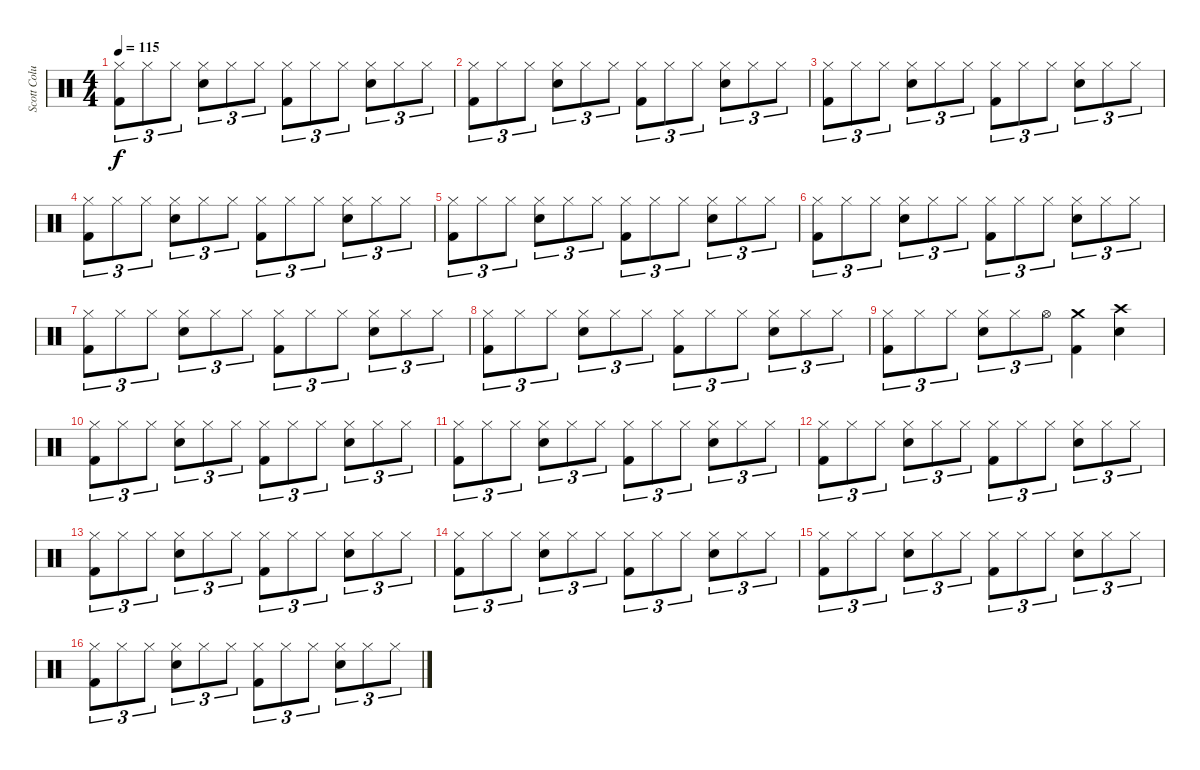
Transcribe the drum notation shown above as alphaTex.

\track ("Scott Columus(Drums)" "Scott Colu") {instrument percussion}
\staff {score}
\articulation defaults
\ts (4 4)
\tempo 115
\clef neutral
\ks c
("Hi-Hat (closed)" "Kick (hit) 2").8{tu (3 2) dy f} "Hi-Hat (closed)".8{tu (3 2)} "Hi-Hat (closed)".8{tu (3 2)} ("Hi-Hat (closed)" "Snare (hit) 2").8{tu (3 2)} "Hi-Hat (closed)".8{tu (3 2)} "Hi-Hat (closed)".8{tu (3 2)} ("Hi-Hat (closed)" "Kick (hit) 2").8{tu (3 2)} "Hi-Hat (closed)".8{tu (3 2)} "Hi-Hat (closed)".8{tu (3 2)} ("Hi-Hat (closed)" "Snare (hit) 2").8{tu (3 2)} "Hi-Hat (closed)".8{tu (3 2)} "Hi-Hat (closed)".8{tu (3 2)} |
("Hi-Hat (closed)" "Kick (hit) 2").8{tu (3 2)} "Hi-Hat (closed)".8{tu (3 2)} "Hi-Hat (closed)".8{tu (3 2)} ("Hi-Hat (closed)" "Snare (hit) 2").8{tu (3 2)} "Hi-Hat (closed)".8{tu (3 2)} "Hi-Hat (closed)".8{tu (3 2)} ("Hi-Hat (closed)" "Kick (hit) 2").8{tu (3 2)} "Hi-Hat (closed)".8{tu (3 2)} "Hi-Hat (closed)".8{tu (3 2)} ("Hi-Hat (closed)" "Snare (hit) 2").8{tu (3 2)} "Hi-Hat (closed)".8{tu (3 2)} "Hi-Hat (closed)".8{tu (3 2)} |
("Hi-Hat (closed)" "Kick (hit) 2").8{tu (3 2)} "Hi-Hat (closed)".8{tu (3 2)} "Hi-Hat (closed)".8{tu (3 2)} ("Hi-Hat (closed)" "Snare (hit) 2").8{tu (3 2)} "Hi-Hat (closed)".8{tu (3 2)} "Hi-Hat (closed)".8{tu (3 2)} ("Hi-Hat (closed)" "Kick (hit) 2").8{tu (3 2)} "Hi-Hat (closed)".8{tu (3 2)} "Hi-Hat (closed)".8{tu (3 2)} ("Hi-Hat (closed)" "Snare (hit) 2").8{tu (3 2)} "Hi-Hat (closed)".8{tu (3 2)} "Hi-Hat (closed)".8{tu (3 2)} |
("Hi-Hat (closed)" "Kick (hit) 2").8{tu (3 2)} "Hi-Hat (closed)".8{tu (3 2)} "Hi-Hat (closed)".8{tu (3 2)} ("Hi-Hat (closed)" "Snare (hit) 2").8{tu (3 2)} "Hi-Hat (closed)".8{tu (3 2)} "Hi-Hat (closed)".8{tu (3 2)} ("Hi-Hat (closed)" "Kick (hit) 2").8{tu (3 2)} "Hi-Hat (closed)".8{tu (3 2)} "Hi-Hat (closed)".8{tu (3 2)} ("Hi-Hat (closed)" "Snare (hit) 2").8{tu (3 2)} "Hi-Hat (closed)".8{tu (3 2)} "Hi-Hat (closed)".8{tu (3 2)} |
("Hi-Hat (closed)" "Kick (hit) 2").8{tu (3 2)} "Hi-Hat (closed)".8{tu (3 2)} "Hi-Hat (closed)".8{tu (3 2)} ("Hi-Hat (closed)" "Snare (hit) 2").8{tu (3 2)} "Hi-Hat (closed)".8{tu (3 2)} "Hi-Hat (closed)".8{tu (3 2)} ("Hi-Hat (closed)" "Kick (hit) 2").8{tu (3 2)} "Hi-Hat (closed)".8{tu (3 2)} "Hi-Hat (closed)".8{tu (3 2)} ("Hi-Hat (closed)" "Snare (hit) 2").8{tu (3 2)} "Hi-Hat (closed)".8{tu (3 2)} "Hi-Hat (closed)".8{tu (3 2)} |
("Hi-Hat (closed)" "Kick (hit) 2").8{tu (3 2)} "Hi-Hat (closed)".8{tu (3 2)} "Hi-Hat (closed)".8{tu (3 2)} ("Hi-Hat (closed)" "Snare (hit) 2").8{tu (3 2)} "Hi-Hat (closed)".8{tu (3 2)} "Hi-Hat (closed)".8{tu (3 2)} ("Hi-Hat (closed)" "Kick (hit) 2").8{tu (3 2)} "Hi-Hat (closed)".8{tu (3 2)} "Hi-Hat (closed)".8{tu (3 2)} ("Hi-Hat (closed)" "Snare (hit) 2").8{tu (3 2)} "Hi-Hat (closed)".8{tu (3 2)} "Hi-Hat (closed)".8{tu (3 2)} |
("Hi-Hat (closed)" "Kick (hit) 2").8{tu (3 2)} "Hi-Hat (closed)".8{tu (3 2)} "Hi-Hat (closed)".8{tu (3 2)} ("Hi-Hat (closed)" "Snare (hit) 2").8{tu (3 2)} "Hi-Hat (closed)".8{tu (3 2)} "Hi-Hat (closed)".8{tu (3 2)} ("Hi-Hat (closed)" "Kick (hit) 2").8{tu (3 2)} "Hi-Hat (closed)".8{tu (3 2)} "Hi-Hat (closed)".8{tu (3 2)} ("Hi-Hat (closed)" "Snare (hit) 2").8{tu (3 2)} "Hi-Hat (closed)".8{tu (3 2)} "Hi-Hat (closed)".8{tu (3 2)} |
("Hi-Hat (closed)" "Kick (hit) 2").8{tu (3 2)} "Hi-Hat (closed)".8{tu (3 2)} "Hi-Hat (closed)".8{tu (3 2)} ("Hi-Hat (closed)" "Snare (hit) 2").8{tu (3 2)} "Hi-Hat (closed)".8{tu (3 2)} "Hi-Hat (closed)".8{tu (3 2)} ("Hi-Hat (closed)" "Kick (hit) 2").8{tu (3 2)} "Hi-Hat (closed)".8{tu (3 2)} "Hi-Hat (closed)".8{tu (3 2)} ("Hi-Hat (closed)" "Snare (hit) 2").8{tu (3 2)} "Hi-Hat (closed)".8{tu (3 2)} "Hi-Hat (closed)".8{tu (3 2)} |
("Hi-Hat (closed)" "Kick (hit) 2").8{tu (3 2)} "Hi-Hat (closed)".8{tu (3 2)} "Hi-Hat (closed)".8{tu (3 2)} ("Hi-Hat (closed)" "Snare (hit) 2").8{tu (3 2)} "Hi-Hat (closed)".8{tu (3 2)} "Hi-Hat (open)".8{tu (3 2)} ("Crash medium (hit)" "Kick (hit) 2").4 ("Crash high (hit)" "Snare (hit) 2").4 |
("Hi-Hat (closed)" "Kick (hit) 2").8{tu (3 2)} "Hi-Hat (closed)".8{tu (3 2)} "Hi-Hat (closed)".8{tu (3 2)} ("Hi-Hat (closed)" "Snare (hit) 2").8{tu (3 2)} "Hi-Hat (closed)".8{tu (3 2)} "Hi-Hat (closed)".8{tu (3 2)} ("Hi-Hat (closed)" "Kick (hit) 2").8{tu (3 2)} "Hi-Hat (closed)".8{tu (3 2)} "Hi-Hat (closed)".8{tu (3 2)} ("Hi-Hat (closed)" "Snare (hit) 2").8{tu (3 2)} "Hi-Hat (closed)".8{tu (3 2)} "Hi-Hat (closed)".8{tu (3 2)} |
("Hi-Hat (closed)" "Kick (hit) 2").8{tu (3 2)} "Hi-Hat (closed)".8{tu (3 2)} "Hi-Hat (closed)".8{tu (3 2)} ("Hi-Hat (closed)" "Snare (hit) 2").8{tu (3 2)} "Hi-Hat (closed)".8{tu (3 2)} "Hi-Hat (closed)".8{tu (3 2)} ("Hi-Hat (closed)" "Kick (hit) 2").8{tu (3 2)} "Hi-Hat (closed)".8{tu (3 2)} "Hi-Hat (closed)".8{tu (3 2)} ("Hi-Hat (closed)" "Snare (hit) 2").8{tu (3 2)} "Hi-Hat (closed)".8{tu (3 2)} "Hi-Hat (closed)".8{tu (3 2)} |
("Hi-Hat (closed)" "Kick (hit) 2").8{tu (3 2)} "Hi-Hat (closed)".8{tu (3 2)} "Hi-Hat (closed)".8{tu (3 2)} ("Hi-Hat (closed)" "Snare (hit) 2").8{tu (3 2)} "Hi-Hat (closed)".8{tu (3 2)} "Hi-Hat (closed)".8{tu (3 2)} ("Hi-Hat (closed)" "Kick (hit) 2").8{tu (3 2)} "Hi-Hat (closed)".8{tu (3 2)} "Hi-Hat (closed)".8{tu (3 2)} ("Hi-Hat (closed)" "Snare (hit) 2").8{tu (3 2)} "Hi-Hat (closed)".8{tu (3 2)} "Hi-Hat (closed)".8{tu (3 2)} |
("Hi-Hat (closed)" "Kick (hit) 2").8{tu (3 2)} "Hi-Hat (closed)".8{tu (3 2)} "Hi-Hat (closed)".8{tu (3 2)} ("Hi-Hat (closed)" "Snare (hit) 2").8{tu (3 2)} "Hi-Hat (closed)".8{tu (3 2)} "Hi-Hat (closed)".8{tu (3 2)} ("Hi-Hat (closed)" "Kick (hit) 2").8{tu (3 2)} "Hi-Hat (closed)".8{tu (3 2)} "Hi-Hat (closed)".8{tu (3 2)} ("Hi-Hat (closed)" "Snare (hit) 2").8{tu (3 2)} "Hi-Hat (closed)".8{tu (3 2)} "Hi-Hat (closed)".8{tu (3 2)} |
("Hi-Hat (closed)" "Kick (hit) 2").8{tu (3 2)} "Hi-Hat (closed)".8{tu (3 2)} "Hi-Hat (closed)".8{tu (3 2)} ("Hi-Hat (closed)" "Snare (hit) 2").8{tu (3 2)} "Hi-Hat (closed)".8{tu (3 2)} "Hi-Hat (closed)".8{tu (3 2)} ("Hi-Hat (closed)" "Kick (hit) 2").8{tu (3 2)} "Hi-Hat (closed)".8{tu (3 2)} "Hi-Hat (closed)".8{tu (3 2)} ("Hi-Hat (closed)" "Snare (hit) 2").8{tu (3 2)} "Hi-Hat (closed)".8{tu (3 2)} "Hi-Hat (closed)".8{tu (3 2)} |
("Hi-Hat (closed)" "Kick (hit) 2").8{tu (3 2)} "Hi-Hat (closed)".8{tu (3 2)} "Hi-Hat (closed)".8{tu (3 2)} ("Hi-Hat (closed)" "Snare (hit) 2").8{tu (3 2)} "Hi-Hat (closed)".8{tu (3 2)} "Hi-Hat (closed)".8{tu (3 2)} ("Hi-Hat (closed)" "Kick (hit) 2").8{tu (3 2)} "Hi-Hat (closed)".8{tu (3 2)} "Hi-Hat (closed)".8{tu (3 2)} ("Hi-Hat (closed)" "Snare (hit) 2").8{tu (3 2)} "Hi-Hat (closed)".8{tu (3 2)} "Hi-Hat (closed)".8{tu (3 2)} |
("Hi-Hat (closed)" "Kick (hit) 2").8{tu (3 2)} "Hi-Hat (closed)".8{tu (3 2)} "Hi-Hat (closed)".8{tu (3 2)} ("Hi-Hat (closed)" "Snare (hit) 2").8{tu (3 2)} "Hi-Hat (closed)".8{tu (3 2)} "Hi-Hat (closed)".8{tu (3 2)} ("Hi-Hat (closed)" "Kick (hit) 2").8{tu (3 2)} "Hi-Hat (closed)".8{tu (3 2)} "Hi-Hat (closed)".8{tu (3 2)} ("Hi-Hat (closed)" "Snare (hit) 2").8{tu (3 2)} "Hi-Hat (closed)".8{tu (3 2)} "Hi-Hat (closed)".8{tu (3 2)}
